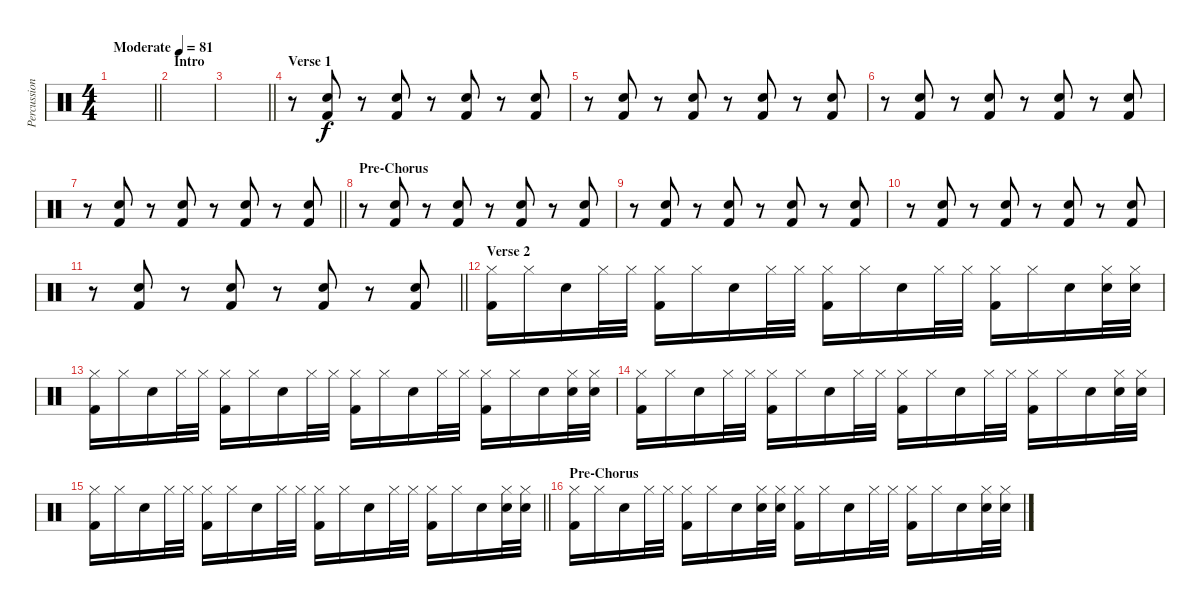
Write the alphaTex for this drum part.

\track ("Percussion" "Percussion") {instrument percussion}
\staff {score}
\articulation defaults
\ts (4 4)
\tempo (81 "Moderate")
\clef neutral
\barLineRight lightlight
\ks c
|
\section ("" "Intro")
|
\barLineRight lightlight
|
\section ("" "Verse 1")
r.8 ("Kick (hit) 2" "Snare (hit) 2").8 r.8 ("Kick (hit) 2" "Snare (hit) 2").8 r.8 ("Kick (hit) 2" "Snare (hit) 2").8 r.8 ("Kick (hit) 2" "Snare (hit) 2").8 |
r.8 ("Kick (hit) 2" "Snare (hit) 2").8 r.8 ("Kick (hit) 2" "Snare (hit) 2").8 r.8 ("Kick (hit) 2" "Snare (hit) 2").8 r.8 ("Kick (hit) 2" "Snare (hit) 2").8 |
r.8 ("Kick (hit) 2" "Snare (hit) 2").8 r.8 ("Kick (hit) 2" "Snare (hit) 2").8 r.8 ("Kick (hit) 2" "Snare (hit) 2").8 r.8 ("Kick (hit) 2" "Snare (hit) 2").8 |
\barLineRight lightlight
r.8 ("Kick (hit) 2" "Snare (hit) 2").8 r.8 ("Kick (hit) 2" "Snare (hit) 2").8 r.8 ("Kick (hit) 2" "Snare (hit) 2").8 r.8 ("Kick (hit) 2" "Snare (hit) 2").8 |
\section ("" "Pre-Chorus")
r.8 ("Kick (hit) 2" "Snare (hit) 2").8 r.8 ("Kick (hit) 2" "Snare (hit) 2").8 r.8 ("Kick (hit) 2" "Snare (hit) 2").8 r.8 ("Kick (hit) 2" "Snare (hit) 2").8 |
r.8 ("Kick (hit) 2" "Snare (hit) 2").8 r.8 ("Kick (hit) 2" "Snare (hit) 2").8 r.8 ("Kick (hit) 2" "Snare (hit) 2").8 r.8 ("Kick (hit) 2" "Snare (hit) 2").8 |
r.8 ("Kick (hit) 2" "Snare (hit) 2").8 r.8 ("Kick (hit) 2" "Snare (hit) 2").8 r.8 ("Kick (hit) 2" "Snare (hit) 2").8 r.8 ("Kick (hit) 2" "Snare (hit) 2").8 |
\barLineRight lightlight
r.8 ("Kick (hit) 2" "Snare (hit) 2").8 r.8 ("Kick (hit) 2" "Snare (hit) 2").8 r.8 ("Kick (hit) 2" "Snare (hit) 2").8 r.8 ("Kick (hit) 2" "Snare (hit) 2").8 |
\section ("" "Verse 2")
("Hi-Hat (closed)" "Kick (hit) 2").16 "Hi-Hat (closed)".16 "Snare (hit) 2".16 "Hi-Hat (closed)".32 "Hi-Hat (closed)".32 ("Hi-Hat (closed)" "Kick (hit) 2").16 "Hi-Hat (closed)".16 "Snare (hit) 2".16 "Hi-Hat (closed)".32 "Hi-Hat (closed)".32 ("Hi-Hat (closed)" "Kick (hit) 2").16 "Hi-Hat (closed)".16 "Snare (hit) 2".16 "Hi-Hat (closed)".32 "Hi-Hat (closed)".32 ("Hi-Hat (closed)" "Kick (hit) 2").16 "Hi-Hat (closed)".16 "Snare (hit) 2".16 ("Hi-Hat (closed)" "Snare (hit) 2").32 ("Hi-Hat (closed)" "Snare (hit) 2").32 |
("Hi-Hat (closed)" "Kick (hit) 2").16 "Hi-Hat (closed)".16 "Snare (hit) 2".16 "Hi-Hat (closed)".32 "Hi-Hat (closed)".32 ("Hi-Hat (closed)" "Kick (hit) 2").16 "Hi-Hat (closed)".16 "Snare (hit) 2".16 "Hi-Hat (closed)".32 "Hi-Hat (closed)".32 ("Hi-Hat (closed)" "Kick (hit) 2").16 "Hi-Hat (closed)".16 "Snare (hit) 2".16 "Hi-Hat (closed)".32 "Hi-Hat (closed)".32 ("Hi-Hat (closed)" "Kick (hit) 2").16 "Hi-Hat (closed)".16 "Snare (hit) 2".16 ("Hi-Hat (closed)" "Snare (hit) 2").32 ("Hi-Hat (closed)" "Snare (hit) 2").32 |
("Hi-Hat (closed)" "Kick (hit) 2").16 "Hi-Hat (closed)".16 "Snare (hit) 2".16 "Hi-Hat (closed)".32 "Hi-Hat (closed)".32 ("Hi-Hat (closed)" "Kick (hit) 2").16 "Hi-Hat (closed)".16 "Snare (hit) 2".16 "Hi-Hat (closed)".32 "Hi-Hat (closed)".32 ("Hi-Hat (closed)" "Kick (hit) 2").16 "Hi-Hat (closed)".16 "Snare (hit) 2".16 "Hi-Hat (closed)".32 "Hi-Hat (closed)".32 ("Hi-Hat (closed)" "Kick (hit) 2").16 "Hi-Hat (closed)".16 "Snare (hit) 2".16 ("Hi-Hat (closed)" "Snare (hit) 2").32 ("Hi-Hat (closed)" "Snare (hit) 2").32 |
\barLineRight lightlight
("Hi-Hat (closed)" "Kick (hit) 2").16 "Hi-Hat (closed)".16 "Snare (hit) 2".16 "Hi-Hat (closed)".32 "Hi-Hat (closed)".32 ("Hi-Hat (closed)" "Kick (hit) 2").16 "Hi-Hat (closed)".16 "Snare (hit) 2".16 "Hi-Hat (closed)".32 "Hi-Hat (closed)".32 ("Hi-Hat (closed)" "Kick (hit) 2").16 "Hi-Hat (closed)".16 "Snare (hit) 2".16 "Hi-Hat (closed)".32 "Hi-Hat (closed)".32 ("Hi-Hat (closed)" "Kick (hit) 2").16 "Hi-Hat (closed)".16 "Snare (hit) 2".16 ("Hi-Hat (closed)" "Snare (hit) 2").32 ("Hi-Hat (closed)" "Snare (hit) 2").32 |
\section ("" "Pre-Chorus")
("Hi-Hat (closed)" "Kick (hit) 2").16 "Hi-Hat (closed)".16 "Snare (hit) 2".16 "Hi-Hat (closed)".32 "Hi-Hat (closed)".32 ("Hi-Hat (closed)" "Kick (hit) 2").16 "Hi-Hat (closed)".16 "Snare (hit) 2".16 ("Hi-Hat (closed)" "Snare (hit) 2").32 ("Hi-Hat (closed)" "Snare (hit) 2").32 ("Hi-Hat (closed)" "Kick (hit) 2").16 "Hi-Hat (closed)".16 "Snare (hit) 2".16 "Hi-Hat (closed)".32 "Hi-Hat (closed)".32 ("Hi-Hat (closed)" "Kick (hit) 2").16 "Hi-Hat (closed)".16 "Snare (hit) 2".16 ("Hi-Hat (closed)" "Snare (hit) 2").32 ("Hi-Hat (closed)" "Snare (hit) 2").32
